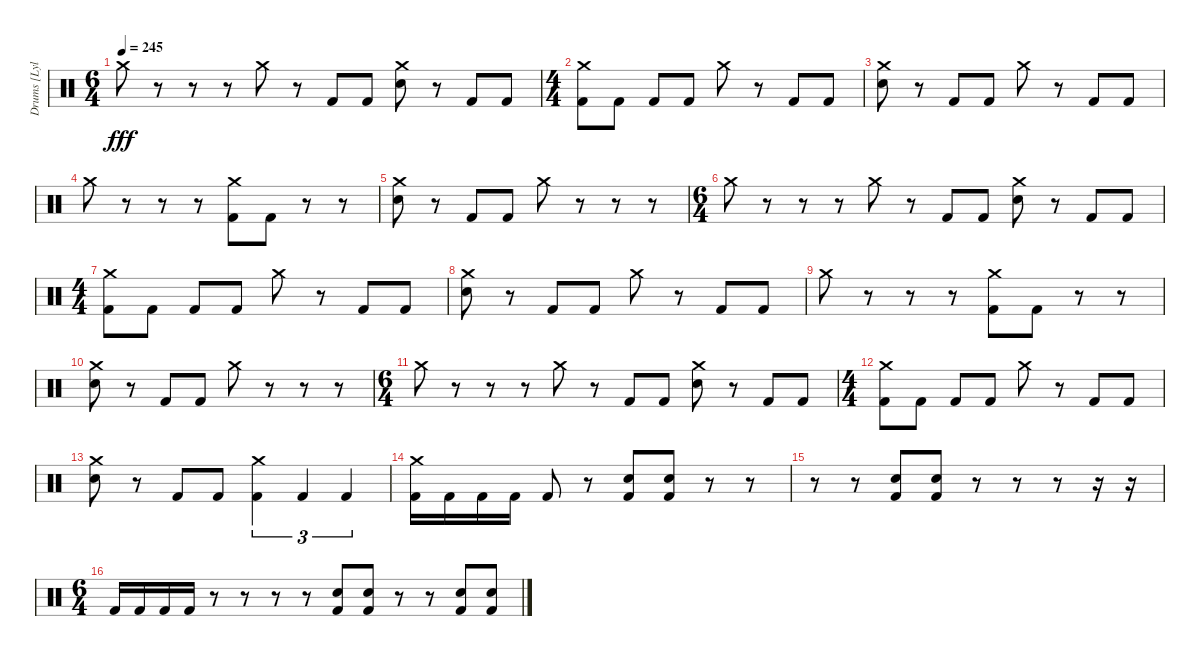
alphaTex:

\track ("Drums [Lyle Cooper]" "Drums [Lyl") {instrument percussion}
\staff {score}
\articulation defaults
\ts (6 4)
\tempo 245
\clef neutral
\ks c "Crash medium (hit)".8{dy fff}
r.8 r.8 r.8 "Crash medium (hit)".8 r.8 "Kick (hit) 2".8 "Kick (hit) 2".8 ("Crash medium (hit)" "Electric Snare (hit)").8 r.8 "Kick (hit) 2".8 "Kick (hit) 2".8 |
\ts (4 4)
("Crash medium (hit)" "Kick (hit) 2").8 "Kick (hit) 2".8 "Kick (hit) 2".8 "Kick (hit) 2".8 "Crash medium (hit)".8 r.8 "Kick (hit) 2".8 "Kick (hit) 2".8 |
("Crash medium (hit)" "Electric Snare (hit)").8 r.8 "Kick (hit) 2".8 "Kick (hit) 2".8 "Crash medium (hit)".8 r.8 "Kick (hit) 2".8 "Kick (hit) 2".8 |
"Crash medium (hit)".8 r.8 r.8 r.8 ("Crash medium (hit)" "Kick (hit) 2").8 "Kick (hit) 2".8 r.8 r.8 |
("Crash medium (hit)" "Electric Snare (hit)").8 r.8 "Kick (hit) 2".8 "Kick (hit) 2".8 "Crash medium (hit)".8 r.8 r.8 r.8 |
\ts (6 4)
"Crash medium (hit)".8 r.8 r.8 r.8 "Crash medium (hit)".8 r.8 "Kick (hit) 2".8 "Kick (hit) 2".8 ("Crash medium (hit)" "Electric Snare (hit)").8 r.8 "Kick (hit) 2".8 "Kick (hit) 2".8 |
\ts (4 4)
("Crash medium (hit)" "Kick (hit) 2").8 "Kick (hit) 2".8 "Kick (hit) 2".8 "Kick (hit) 2".8 "Crash medium (hit)".8 r.8 "Kick (hit) 2".8 "Kick (hit) 2".8 |
("Crash medium (hit)" "Electric Snare (hit)").8 r.8 "Kick (hit) 2".8 "Kick (hit) 2".8 "Crash medium (hit)".8 r.8 "Kick (hit) 2".8 "Kick (hit) 2".8 |
"Crash medium (hit)".8 r.8 r.8 r.8 ("Crash medium (hit)" "Kick (hit) 2").8 "Kick (hit) 2".8 r.8 r.8 |
("Crash medium (hit)" "Electric Snare (hit)").8 r.8 "Kick (hit) 2".8 "Kick (hit) 2".8 "Crash medium (hit)".8 r.8 r.8 r.8 |
\ts (6 4)
"Crash medium (hit)".8 r.8 r.8 r.8 "Crash medium (hit)".8 r.8 "Kick (hit) 2".8 "Kick (hit) 2".8 ("Crash medium (hit)" "Electric Snare (hit)").8 r.8 "Kick (hit) 2".8 "Kick (hit) 2".8 |
\ts (4 4)
("Crash medium (hit)" "Kick (hit) 2").8 "Kick (hit) 2".8 "Kick (hit) 2".8 "Kick (hit) 2".8 "Crash medium (hit)".8 r.8 "Kick (hit) 2".8 "Kick (hit) 2".8 |
("Crash medium (hit)" "Electric Snare (hit)").8 r.8 "Kick (hit) 2".8 "Kick (hit) 2".8 ("Crash medium (hit)" "Kick (hit) 2").4{tu (3 2)} "Kick (hit) 2".4{tu (3 2)} "Kick (hit) 2".4{tu (3 2)} |
("Crash medium (hit)" "Kick (hit) 2").16 "Kick (hit) 2".16 "Kick (hit) 2".16 "Kick (hit) 2".16 "Kick (hit) 2".8 r.8 ("Electric Snare (hit)" "Kick (hit) 2").8 ("Electric Snare (hit)" "Kick (hit) 2").8 r.8 r.8 |
r.8 r.8 ("Electric Snare (hit)" "Kick (hit) 2").8 ("Electric Snare (hit)" "Kick (hit) 2").8 r.8 r.8 r.8 r.16 r.16 |
\ts (6 4)
"Kick (hit) 2".16 "Kick (hit) 2".16 "Kick (hit) 2".16 "Kick (hit) 2".16 r.8 r.8 r.8 r.8 ("Electric Snare (hit)" "Kick (hit) 2").8 ("Electric Snare (hit)" "Kick (hit) 2").8 r.8 r.8 ("Electric Snare (hit)" "Kick (hit) 2").8 ("Electric Snare (hit)" "Kick (hit) 2").8
